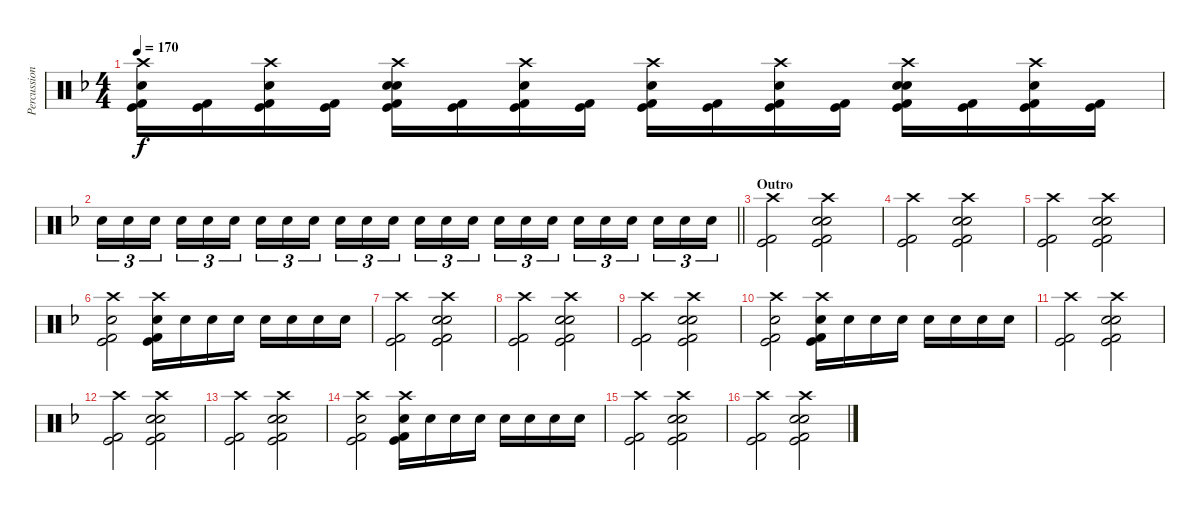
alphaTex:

\track ("Percussion" "Percussion") {instrument percussion}
\staff {score}
\articulation defaults
\ts (4 4)
\tempo 170
\clef neutral
\ks dminor
("Crash high (hit)" "Electric Snare (hit)" "Kick (hit) 2" "Kick (hit)").16{dy f} ("Kick (hit) 2" "Kick (hit)").16 ("Crash high (hit)" "Electric Snare (hit)" "Kick (hit) 2" "Kick (hit)").16 ("Kick (hit) 2" "Kick (hit)").16 ("Crash high (hit)" "Electric Snare (hit)" "Electric Snare (hit)" "Kick (hit) 2" "Kick (hit)").16 ("Kick (hit) 2" "Kick (hit)").16 ("Crash high (hit)" "Electric Snare (hit)" "Kick (hit) 2" "Kick (hit)").16 ("Kick (hit) 2" "Kick (hit)").16 ("Crash high (hit)" "Electric Snare (hit)" "Kick (hit) 2" "Kick (hit)").16 ("Kick (hit) 2" "Kick (hit)").16 ("Crash high (hit)" "Electric Snare (hit)" "Kick (hit) 2" "Kick (hit)").16 ("Kick (hit) 2" "Kick (hit)").16 ("Crash high (hit)" "Electric Snare (hit)" "Electric Snare (hit)" "Kick (hit) 2" "Kick (hit)").16 ("Kick (hit) 2" "Kick (hit)").16 ("Crash high (hit)" "Electric Snare (hit)" "Kick (hit) 2" "Kick (hit)").16 ("Kick (hit) 2" "Kick (hit)").16 |
\barLineRight lightlight "Electric Snare (hit)".16{tu (3 2)} "Electric Snare (hit)".16{tu (3 2)} "Electric Snare (hit)".16{tu (3 2) beam splitsecondary} "Electric Snare (hit)".16{tu (3 2)} "Electric Snare (hit)".16{tu (3 2)} "Electric Snare (hit)".16{tu (3 2)} "Electric Snare (hit)".16{tu (3 2)} "Electric Snare (hit)".16{tu (3 2)} "Electric Snare (hit)".16{tu (3 2) beam splitsecondary} "Electric Snare (hit)".16{tu (3 2)} "Electric Snare (hit)".16{tu (3 2)} "Electric Snare (hit)".16{tu (3 2)} "Electric Snare (hit)".16{tu (3 2)} "Electric Snare (hit)".16{tu (3 2)} "Electric Snare (hit)".16{tu (3 2) beam splitsecondary} "Electric Snare (hit)".16{tu (3 2)} "Electric Snare (hit)".16{tu (3 2)} "Electric Snare (hit)".16{tu (3 2)} "Electric Snare (hit)".16{tu (3 2)} "Electric Snare (hit)".16{tu (3 2)} "Electric Snare (hit)".16{tu (3 2) beam splitsecondary} "Electric Snare (hit)".16{tu (3 2)} "Electric Snare (hit)".16{tu (3 2)} "Electric Snare (hit)".16{tu (3 2)}
|
\section ("" "Outro")
("Crash high (hit)" "Kick (hit) 2" "Kick (hit)").2 ("Electric Snare (hit)" "Electric Snare (hit)" "Crash high (hit)" "Kick (hit) 2" "Kick (hit)").2 |
("Crash high (hit)" "Kick (hit) 2" "Kick (hit)").2 ("Electric Snare (hit)" "Electric Snare (hit)" "Crash high (hit)" "Kick (hit) 2" "Kick (hit)").2 |
("Crash high (hit)" "Kick (hit) 2" "Kick (hit)").2 ("Electric Snare (hit)" "Electric Snare (hit)" "Crash high (hit)" "Kick (hit) 2" "Kick (hit)").2 |
("Electric Snare (hit)" "Crash high (hit)" "Kick (hit) 2" "Kick (hit)").2 ("Electric Snare (hit)" "Crash high (hit)" "Kick (hit) 2" "Kick (hit)").16 "Electric Snare (hit)".16 "Electric Snare (hit)".16 "Electric Snare (hit)".16 "Electric Snare (hit)".16 "Electric Snare (hit)".16 "Electric Snare (hit)".16 "Electric Snare (hit)".16 |
("Crash high (hit)" "Kick (hit) 2" "Kick (hit)").2 ("Electric Snare (hit)" "Electric Snare (hit)" "Crash high (hit)" "Kick (hit) 2" "Kick (hit)").2 |
("Crash high (hit)" "Kick (hit) 2" "Kick (hit)").2 ("Electric Snare (hit)" "Electric Snare (hit)" "Crash high (hit)" "Kick (hit) 2" "Kick (hit)").2 |
("Crash high (hit)" "Kick (hit) 2" "Kick (hit)").2 ("Electric Snare (hit)" "Electric Snare (hit)" "Crash high (hit)" "Kick (hit) 2" "Kick (hit)").2 |
("Electric Snare (hit)" "Crash high (hit)" "Kick (hit) 2" "Kick (hit)").2 ("Electric Snare (hit)" "Crash high (hit)" "Kick (hit) 2" "Kick (hit)").16 "Electric Snare (hit)".16 "Electric Snare (hit)".16 "Electric Snare (hit)".16 "Electric Snare (hit)".16 "Electric Snare (hit)".16 "Electric Snare (hit)".16 "Electric Snare (hit)".16 |
("Crash high (hit)" "Kick (hit) 2" "Kick (hit)").2 ("Electric Snare (hit)" "Electric Snare (hit)" "Crash high (hit)" "Kick (hit) 2" "Kick (hit)").2 |
("Crash high (hit)" "Kick (hit) 2" "Kick (hit)").2 ("Electric Snare (hit)" "Electric Snare (hit)" "Crash high (hit)" "Kick (hit) 2" "Kick (hit)").2 |
("Crash high (hit)" "Kick (hit) 2" "Kick (hit)").2 ("Electric Snare (hit)" "Electric Snare (hit)" "Crash high (hit)" "Kick (hit) 2" "Kick (hit)").2 |
("Electric Snare (hit)" "Crash high (hit)" "Kick (hit) 2" "Kick (hit)").2 ("Electric Snare (hit)" "Crash high (hit)" "Kick (hit) 2" "Kick (hit)").16 "Electric Snare (hit)".16 "Electric Snare (hit)".16 "Electric Snare (hit)".16 "Electric Snare (hit)".16 "Electric Snare (hit)".16 "Electric Snare (hit)".16 "Electric Snare (hit)".16 |
("Crash high (hit)" "Kick (hit) 2" "Kick (hit)").2 ("Electric Snare (hit)" "Electric Snare (hit)" "Crash high (hit)" "Kick (hit) 2" "Kick (hit)").2 |
("Crash high (hit)" "Kick (hit) 2" "Kick (hit)").2 ("Electric Snare (hit)" "Electric Snare (hit)" "Crash high (hit)" "Kick (hit) 2" "Kick (hit)").2
